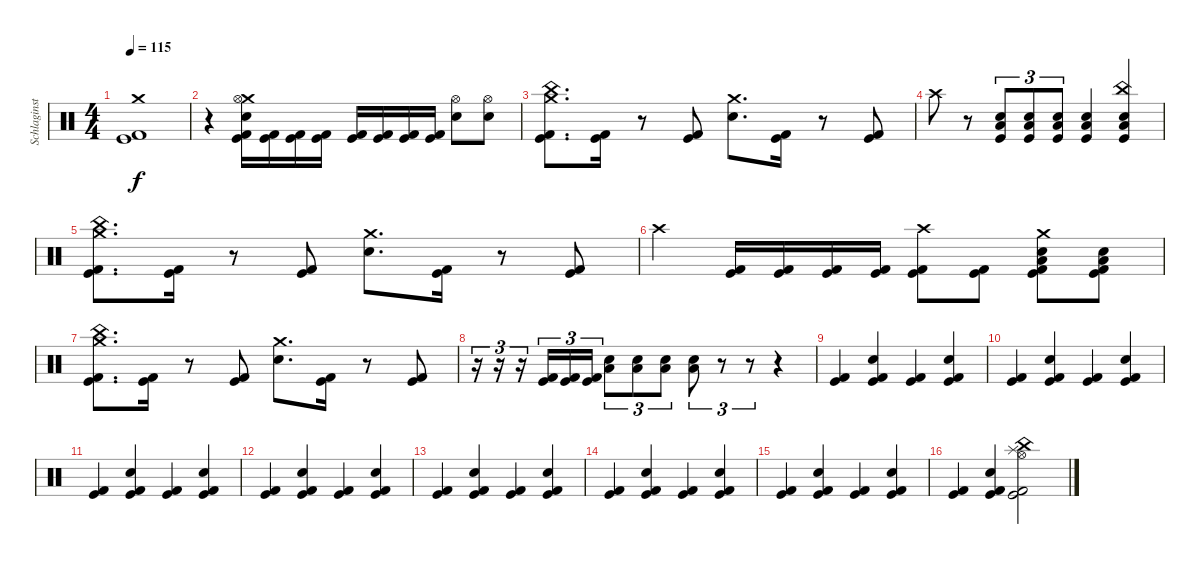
\track ("Schlaginstrumente - Auswahl" "Schlaginst") {instrument percussion}
\staff {score}
\articulation defaults
\ts (4 4)
\tempo 115
\clef neutral
\ks c
("Crash medium (hit)" "Kick (hit) 2" "Kick (hit)").1{dy f} |
r.4 ("Crash medium (hit)" "Hi-Hat (open)" "Electric Snare (hit)" "Kick (hit) 2" "Kick (hit)").16 ("Kick (hit) 2" "Kick (hit)").16 ("Kick (hit) 2" "Kick (hit)").16 ("Kick (hit) 2" "Kick (hit)").16 ("Kick (hit) 2" "Kick (hit)").16 ("Kick (hit) 2" "Kick (hit)").16 ("Kick (hit) 2" "Kick (hit)").16 ("Kick (hit) 2" "Kick (hit)").16 ("Hi-Hat (open)" "Electric Snare (hit)").8 ("Hi-Hat (open)" "Electric Snare (hit)").8 |
("Crash medium (hit)" "China (hit)" "Kick (hit) 2" "Kick (hit)").8{d} ("Kick (hit) 2" "Kick (hit)").16 r.8 ("Kick (hit) 2" "Kick (hit)").8 ("Crash medium (hit)" "Electric Snare (hit)").8{d} ("Kick (hit) 2" "Kick (hit)").16 r.8 ("Kick (hit) 2" "Kick (hit)").8 |
"Crash high (hit)".8 r.8 ("Low Tom (hit)" "Electric Snare (hit)" "Kick (hit)").8{tu (3 2)} ("Low Tom (hit)" "Electric Snare (hit)" "Kick (hit)").8{tu (3 2)} ("Low Tom (hit)" "Electric Snare (hit)" "Kick (hit)").8{tu (3 2)} ("Low Tom (hit)" "Electric Snare (hit)" "Kick (hit)").4 ("China (hit)" "Low Tom (hit)" "Electric Snare (hit)" "Kick (hit)").4 |
("Crash medium (hit)" "China (hit)" "Kick (hit) 2" "Kick (hit)").8{d} ("Kick (hit) 2" "Kick (hit)").16 r.8 ("Kick (hit) 2" "Kick (hit)").8 ("Crash medium (hit)" "Electric Snare (hit)").8{d} ("Kick (hit) 2" "Kick (hit)").16 r.8 ("Kick (hit) 2" "Kick (hit)").8 |
"Crash high (hit)".4 ("Kick (hit) 2" "Kick (hit)").16 ("Kick (hit) 2" "Kick (hit)").16 ("Kick (hit) 2" "Kick (hit)").16 ("Kick (hit) 2" "Kick (hit)").16 ("Crash high (hit)" "Kick (hit) 2" "Kick (hit)").8 ("Kick (hit) 2" "Kick (hit)").8 ("Crash medium (hit)" "Electric Snare (hit)" "Low Tom (hit)" "Kick (hit) 2" "Kick (hit)").8 ("Low Tom (hit)" "Electric Snare (hit)" "Kick (hit) 2" "Kick (hit)").8 |
("Crash medium (hit)" "China (hit)" "Kick (hit) 2" "Kick (hit)").8{d} ("Kick (hit) 2" "Kick (hit)").16 r.8 ("Kick (hit) 2" "Kick (hit)").8 ("Crash medium (hit)" "Electric Snare (hit)").8{d} ("Kick (hit) 2" "Kick (hit)").16 r.8 ("Kick (hit) 2" "Kick (hit)").8 |
r.16{tu (3 2)} r.16{tu (3 2)} r.16{tu (3 2)} ("Kick (hit) 2" "Kick (hit)").16{tu (3 2)} ("Kick (hit) 2" "Kick (hit)").16{tu (3 2)} ("Kick (hit) 2" "Kick (hit)").16{tu (3 2)} ("Low Tom (hit)" "Electric Snare (hit)").8{tu (3 2)} ("Low Tom (hit)" "Electric Snare (hit)").8{tu (3 2)} ("Low Tom (hit)" "Electric Snare (hit)").8{tu (3 2)} ("Low Tom (hit)" "Electric Snare (hit)").8{tu (3 2)} r.8{tu (3 2)} r.8{tu (3 2)} r.4 |
("Kick (hit) 2" "Kick (hit)").4{volume 8} ("Hand Clap (hit)" "Kick (hit) 2" "Kick (hit)").4 ("Kick (hit) 2" "Kick (hit)").4 ("Hand Clap (hit)" "Kick (hit) 2" "Kick (hit)").4 |
("Kick (hit) 2" "Kick (hit)").4 ("Hand Clap (hit)" "Kick (hit) 2" "Kick (hit)").4 ("Kick (hit) 2" "Kick (hit)").4 ("Hand Clap (hit)" "Kick (hit) 2" "Kick (hit)").4 |
("Kick (hit) 2" "Kick (hit)").4 ("Hand Clap (hit)" "Kick (hit) 2" "Kick (hit)").4 ("Kick (hit) 2" "Kick (hit)").4 ("Hand Clap (hit)" "Kick (hit) 2" "Kick (hit)").4 |
("Kick (hit) 2" "Kick (hit)").4 ("Hand Clap (hit)" "Kick (hit) 2" "Kick (hit)").4 ("Kick (hit) 2" "Kick (hit)").4 ("Hand Clap (hit)" "Kick (hit) 2" "Kick (hit)").4 |
("Kick (hit) 2" "Kick (hit)").4 ("Hand Clap (hit)" "Kick (hit) 2" "Kick (hit)").4 ("Kick (hit) 2" "Kick (hit)").4 ("Hand Clap (hit)" "Kick (hit) 2" "Kick (hit)").4 |
("Kick (hit) 2" "Kick (hit)").4 ("Hand Clap (hit)" "Kick (hit) 2" "Kick (hit)").4 ("Kick (hit) 2" "Kick (hit)").4 ("Hand Clap (hit)" "Kick (hit) 2" "Kick (hit)").4 |
("Kick (hit) 2" "Kick (hit)").4 ("Hand Clap (hit)" "Kick (hit) 2" "Kick (hit)").4 ("Kick (hit) 2" "Kick (hit)").4 ("Hand Clap (hit)" "Kick (hit) 2" "Kick (hit)").4 |
("Kick (hit) 2" "Kick (hit)").4 ("Hand Clap (hit)" "Kick (hit) 2" "Kick (hit)").4 ("Hi-Hat (open)" "Splash (hit)" "China (hit)" "Kick (hit) 2" "Kick (hit)").2
